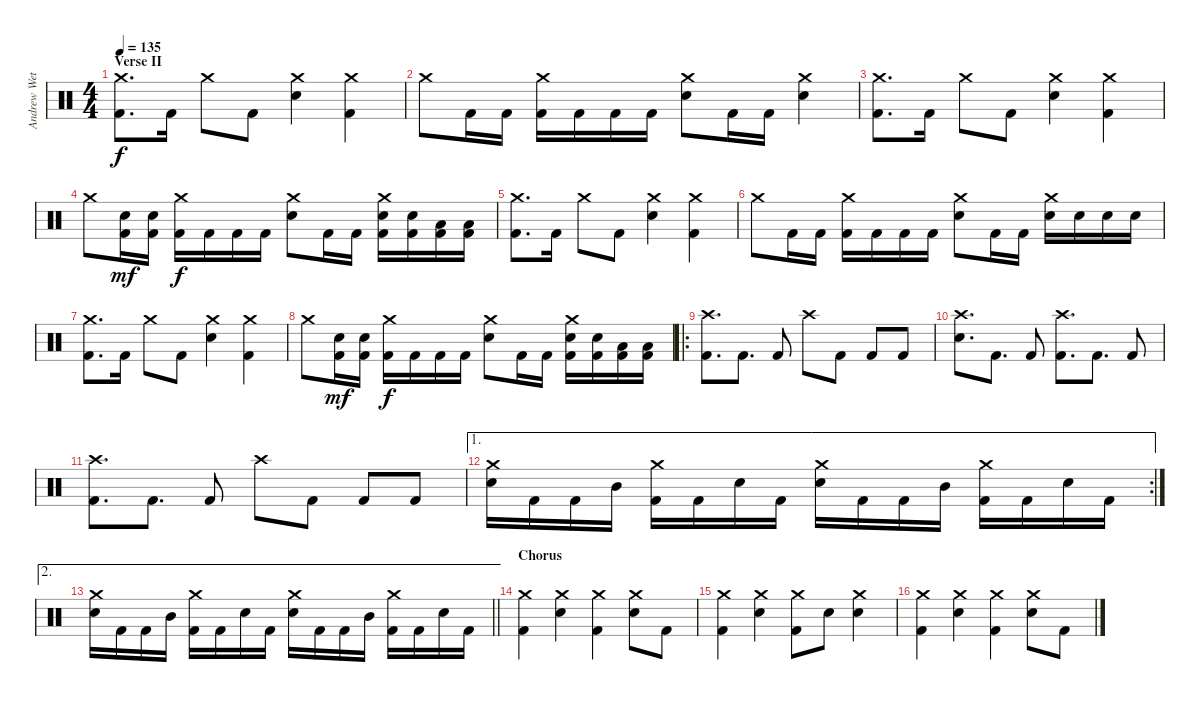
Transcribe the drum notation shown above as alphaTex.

\track ("Andrew Wetzel" "Andrew Wet") {instrument percussion}
\staff
\articulation defaults
\ts (4 4)
\section ("" "Verse II")
\tempo 135
\clef neutral
\ks c
("Crash medium (hit)" "Kick (hit) 2").8{d dy f} "Kick (hit) 2".16 "Crash medium (hit)".8 "Kick (hit) 2".8 ("Crash medium (hit)" "Snare (hit) 2").4 ("Crash medium (hit)" "Kick (hit) 2").4 |
"Crash medium (hit)".8 "Kick (hit) 2".16 "Kick (hit) 2".16 ("Crash medium (hit)" "Kick (hit) 2").16 "Kick (hit) 2".16 "Kick (hit) 2".16 "Kick (hit) 2".16 ("Crash medium (hit)" "Snare (hit) 2").8 "Kick (hit) 2".16 "Kick (hit) 2".16 ("Crash medium (hit)" "Snare (hit) 2").4 |
("Crash medium (hit)" "Kick (hit) 2").8{d} "Kick (hit) 2".16 "Crash medium (hit)".8 "Kick (hit) 2".8 ("Crash medium (hit)" "Snare (hit) 2").4 ("Crash medium (hit)" "Kick (hit) 2").4 |
"Crash medium (hit)".8 ("Snare (hit) 2" "Kick (hit) 2").16{dy mf} ("Snare (hit) 2" "Kick (hit) 2").16 ("Crash medium (hit)" "Kick (hit) 2").16{dy f} "Kick (hit) 2".16 "Kick (hit) 2".16 "Kick (hit) 2".16 ("Crash medium (hit)" "Snare (hit) 2").8 "Kick (hit) 2".16 "Kick (hit) 2".16 ("Crash medium (hit)" "Snare (hit) 2" "Kick (hit) 2").16 ("Snare (hit) 2" "Kick (hit) 2").16 ("Low Tom (hit)" "Kick (hit) 2").16 ("Low Tom (hit)" "Kick (hit) 2").16 |
("Crash medium (hit)" "Kick (hit) 2").8{d} "Kick (hit) 2".16 "Crash medium (hit)".8 "Kick (hit) 2".8 ("Crash medium (hit)" "Snare (hit) 2").4 ("Crash medium (hit)" "Kick (hit) 2").4 |
"Crash medium (hit)".8 "Kick (hit) 2".16 "Kick (hit) 2".16 ("Crash medium (hit)" "Kick (hit) 2").16 "Kick (hit) 2".16 "Kick (hit) 2".16 "Kick (hit) 2".16 ("Crash medium (hit)" "Snare (hit) 2").8 "Kick (hit) 2".16 "Kick (hit) 2".16 ("Crash medium (hit)" "Snare (hit) 2").16 "Snare (hit) 2".16 "Snare (hit) 2".16 "Snare (hit) 2".16 |
("Crash medium (hit)" "Kick (hit) 2").8{d} "Kick (hit) 2".16 "Crash medium (hit)".8 "Kick (hit) 2".8 ("Crash medium (hit)" "Snare (hit) 2").4 ("Crash medium (hit)" "Kick (hit) 2").4 |
"Crash medium (hit)".8 ("Snare (hit) 2" "Kick (hit) 2").16{dy mf} ("Snare (hit) 2" "Kick (hit) 2").16 ("Crash medium (hit)" "Kick (hit) 2").16{dy f} "Kick (hit) 2".16 "Kick (hit) 2".16 "Kick (hit) 2".16 ("Crash medium (hit)" "Snare (hit) 2").8 "Kick (hit) 2".16 "Kick (hit) 2".16 ("Crash medium (hit)" "Snare (hit) 2" "Kick (hit) 2").16 ("Snare (hit) 2" "Kick (hit) 2").16 ("Low Tom (hit)" "Kick (hit) 2").16 ("Low Tom (hit)" "Kick (hit) 2").16 |
\ro
("Crash high (hit)" "Kick (hit) 2").8{d} "Kick (hit) 2".8{d} "Kick (hit) 2".8 "Crash high (hit)".8 "Kick (hit) 2".8 "Kick (hit) 2".8 "Kick (hit) 2".8 |
("Crash high (hit)" "Snare (hit) 2").8{d} "Kick (hit) 2".8{d} "Kick (hit) 2".8 ("Crash high (hit)" "Kick (hit) 2").8{d} "Kick (hit) 2".8{d} "Kick (hit) 2".8 |
("Crash high (hit)" "Kick (hit) 2").8{d} "Kick (hit) 2".8{d} "Kick (hit) 2".8 "Crash high (hit)".8 "Kick (hit) 2".8 "Kick (hit) 2".8 "Kick (hit) 2".8 |
\ae 1
\rc 2
("Crash medium (hit)" "Snare (hit) 2").16 "Kick (hit) 2".16 "Kick (hit) 2".16 "Mid Tom (hit)".16 ("Crash medium (hit)" "Kick (hit) 2").16 "Kick (hit) 2".16 "Snare (hit) 2".16 "Kick (hit) 2".16 ("Crash medium (hit)" "Snare (hit) 2").16 "Kick (hit) 2".16 "Kick (hit) 2".16 "Mid Tom (hit)".16 ("Crash medium (hit)" "Kick (hit) 2").16 "Kick (hit) 2".16 "Snare (hit) 2".16 "Kick (hit) 2".16 |
\ae 2
\barLineRight lightlight
("Crash medium (hit)" "Snare (hit) 2").16 "Kick (hit) 2".16 "Kick (hit) 2".16 "Mid Tom (hit)".16 ("Crash medium (hit)" "Kick (hit) 2").16 "Kick (hit) 2".16 "Snare (hit) 2".16 "Kick (hit) 2".16 ("Crash medium (hit)" "Snare (hit) 2").16 "Kick (hit) 2".16 "Kick (hit) 2".16 "Mid Tom (hit)".16 ("Crash medium (hit)" "Kick (hit) 2").16 "Kick (hit) 2".16 "Snare (hit) 2".16 "Kick (hit) 2".16 |
\section ("" "Chorus")
("Crash medium (hit)" "Kick (hit) 2").4 ("Crash medium (hit)" "Snare (hit) 2").4 ("Crash medium (hit)" "Kick (hit) 2").4 ("Crash medium (hit)" "Snare (hit) 2").8 "Kick (hit) 2".8 |
("Crash medium (hit)" "Kick (hit) 2").4 ("Crash medium (hit)" "Snare (hit) 2").4 ("Crash medium (hit)" "Kick (hit) 2").8 "Snare (hit) 2".8 ("Crash medium (hit)" "Snare (hit) 2").4 |
("Crash medium (hit)" "Kick (hit) 2").4 ("Crash medium (hit)" "Snare (hit) 2").4 ("Crash medium (hit)" "Kick (hit) 2").4 ("Crash medium (hit)" "Snare (hit) 2").8 "Kick (hit) 2".8
